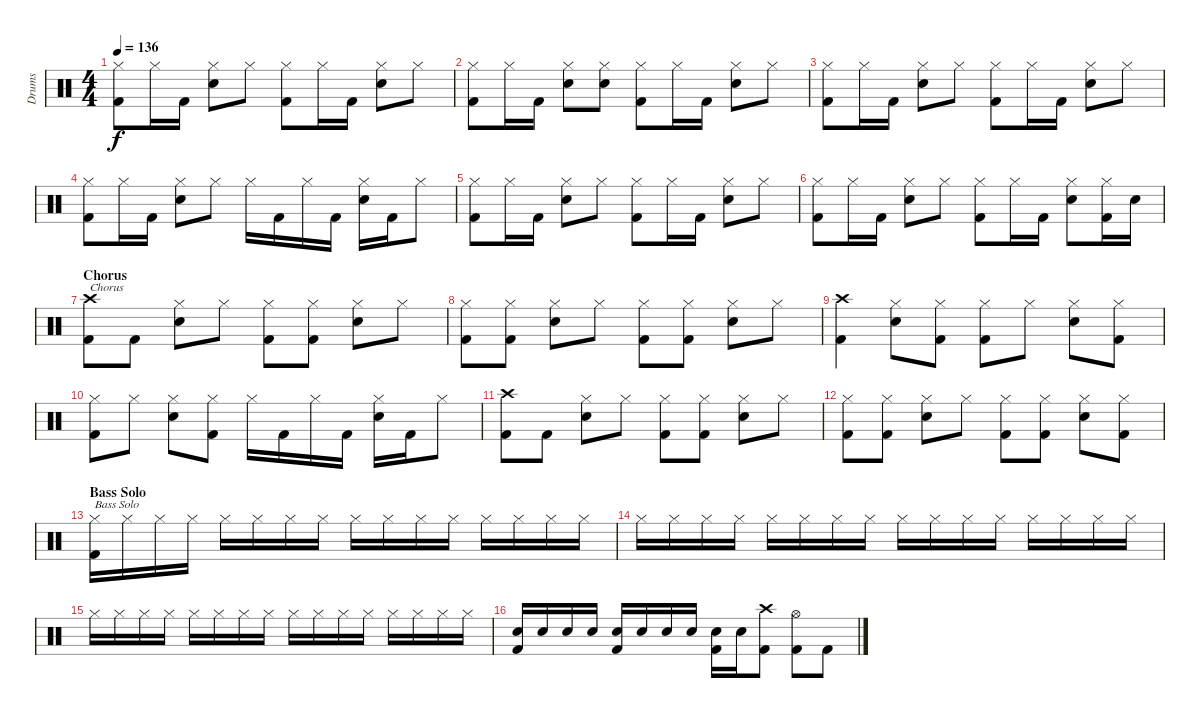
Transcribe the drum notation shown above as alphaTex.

\track ("Drums" "Drums") {instrument percussion}
\staff {score}
\articulation defaults
\ts (4 4)
\tempo 136
\clef neutral
\ks c
("Hi-Hat (closed)" "Kick (hit) 2").8{dy f} "Hi-Hat (closed)".16 "Kick (hit) 2".16 ("Hi-Hat (closed)" "Electric Snare (hit)").8 "Hi-Hat (closed)".8 ("Hi-Hat (closed)" "Kick (hit) 2").8 "Hi-Hat (closed)".16 "Kick (hit) 2".16 ("Hi-Hat (closed)" "Electric Snare (hit)").8 "Hi-Hat (closed)".8 |
("Hi-Hat (closed)" "Kick (hit) 2").8 "Hi-Hat (closed)".16 "Kick (hit) 2".16 ("Hi-Hat (closed)" "Electric Snare (hit)").8 ("Hi-Hat (closed)" "Electric Snare (hit)").8 ("Hi-Hat (closed)" "Kick (hit) 2").8 "Hi-Hat (closed)".16 "Kick (hit) 2".16 ("Hi-Hat (closed)" "Electric Snare (hit)").8 "Hi-Hat (closed)".8 |
("Hi-Hat (closed)" "Kick (hit) 2").8 "Hi-Hat (closed)".16 "Kick (hit) 2".16 ("Hi-Hat (closed)" "Electric Snare (hit)").8 "Hi-Hat (closed)".8 ("Hi-Hat (closed)" "Kick (hit) 2").8 "Hi-Hat (closed)".16 "Kick (hit) 2".16 ("Hi-Hat (closed)" "Electric Snare (hit)").8 "Hi-Hat (closed)".8 |
("Hi-Hat (closed)" "Kick (hit) 2").8 "Hi-Hat (closed)".16 "Kick (hit) 2".16 ("Hi-Hat (closed)" "Electric Snare (hit)").8 "Hi-Hat (closed)".8 "Hi-Hat (closed)".16 "Kick (hit) 2".16 "Hi-Hat (closed)".16 "Kick (hit) 2".16 ("Hi-Hat (closed)" "Electric Snare (hit)").16 "Kick (hit) 2".16 "Hi-Hat (closed)".8 |
("Hi-Hat (closed)" "Kick (hit) 2").8 "Hi-Hat (closed)".16 "Kick (hit) 2".16 ("Hi-Hat (closed)" "Electric Snare (hit)").8 "Hi-Hat (closed)".8 ("Hi-Hat (closed)" "Kick (hit) 2").8 "Hi-Hat (closed)".16 "Kick (hit) 2".16 ("Hi-Hat (closed)" "Electric Snare (hit)").8 "Hi-Hat (closed)".8 |
("Hi-Hat (closed)" "Kick (hit) 2").8 "Hi-Hat (closed)".16 "Kick (hit) 2".16 ("Hi-Hat (closed)" "Electric Snare (hit)").8 "Hi-Hat (closed)".8 ("Hi-Hat (closed)" "Kick (hit) 2").8 "Hi-Hat (closed)".16 "Kick (hit) 2".16 ("Hi-Hat (closed)" "Electric Snare (hit)").8 ("Hi-Hat (closed)" "Kick (hit) 2").16 "Electric Snare (hit)".16 |
\section ("" "Chorus ")
("Crash high (hit)" "Kick (hit) 2").8{txt "Chorus"} "Kick (hit) 2".8 ("Hi-Hat (closed)" "Electric Snare (hit)").8 "Hi-Hat (closed)".8 ("Hi-Hat (closed)" "Kick (hit) 2").8 ("Hi-Hat (closed)" "Kick (hit) 2").8 ("Hi-Hat (closed)" "Electric Snare (hit)").8 "Hi-Hat (closed)".8 |
("Hi-Hat (closed)" "Kick (hit) 2").8 ("Hi-Hat (closed)" "Kick (hit) 2").8 ("Hi-Hat (closed)" "Electric Snare (hit)").8 "Hi-Hat (closed)".8 ("Hi-Hat (closed)" "Kick (hit) 2").8 ("Hi-Hat (closed)" "Kick (hit) 2").8 ("Hi-Hat (closed)" "Electric Snare (hit)").8 "Hi-Hat (closed)".8 |
("Crash high (hit)" "Kick (hit) 2").4 ("Hi-Hat (closed)" "Electric Snare (hit)").8 ("Hi-Hat (closed)" "Kick (hit) 2").8 ("Hi-Hat (closed)" "Kick (hit) 2").8 "Hi-Hat (closed)".8 ("Hi-Hat (closed)" "Electric Snare (hit)").8 ("Hi-Hat (closed)" "Kick (hit) 2").8 |
("Hi-Hat (closed)" "Kick (hit) 2").8 "Hi-Hat (closed)".8 ("Hi-Hat (closed)" "Electric Snare (hit)").8 ("Hi-Hat (closed)" "Kick (hit) 2").8 "Hi-Hat (closed)".16 "Kick (hit) 2".16 "Hi-Hat (closed)".16 "Kick (hit) 2".16 ("Hi-Hat (closed)" "Electric Snare (hit)").16 "Kick (hit) 2".16 "Hi-Hat (closed)".8 |
("Crash high (hit)" "Kick (hit) 2").8 "Kick (hit) 2".8 ("Hi-Hat (closed)" "Electric Snare (hit)").8 "Hi-Hat (closed)".8 ("Hi-Hat (closed)" "Kick (hit) 2").8 ("Hi-Hat (closed)" "Kick (hit) 2").8 ("Hi-Hat (closed)" "Electric Snare (hit)").8 "Hi-Hat (closed)".8 |
("Hi-Hat (closed)" "Kick (hit) 2").8 ("Hi-Hat (closed)" "Kick (hit) 2").8 ("Hi-Hat (closed)" "Electric Snare (hit)").8 "Hi-Hat (closed)".8 ("Hi-Hat (closed)" "Kick (hit) 2").8 ("Hi-Hat (closed)" "Kick (hit) 2").8 ("Hi-Hat (closed)" "Electric Snare (hit)").8 ("Hi-Hat (closed)" "Kick (hit) 2").8 |
\section ("" "Bass Solo")
("Hi-Hat (closed)" "Kick (hit) 2").16{txt "Bass Solo"} "Hi-Hat (closed)".16 "Hi-Hat (closed)".16 "Hi-Hat (closed)".16 "Hi-Hat (closed)".16 "Hi-Hat (closed)".16 "Hi-Hat (closed)".16 "Hi-Hat (closed)".16 "Hi-Hat (closed)".16 "Hi-Hat (closed)".16 "Hi-Hat (closed)".16 "Hi-Hat (closed)".16 "Hi-Hat (closed)".16 "Hi-Hat (closed)".16 "Hi-Hat (closed)".16 "Hi-Hat (closed)".16 |
"Hi-Hat (closed)".16 "Hi-Hat (closed)".16 "Hi-Hat (closed)".16 "Hi-Hat (closed)".16 "Hi-Hat (closed)".16 "Hi-Hat (closed)".16 "Hi-Hat (closed)".16 "Hi-Hat (closed)".16 "Hi-Hat (closed)".16 "Hi-Hat (closed)".16 "Hi-Hat (closed)".16 "Hi-Hat (closed)".16 "Hi-Hat (closed)".16 "Hi-Hat (closed)".16 "Hi-Hat (closed)".16 "Hi-Hat (closed)".16 |
"Hi-Hat (closed)".16 "Hi-Hat (closed)".16 "Hi-Hat (closed)".16 "Hi-Hat (closed)".16 "Hi-Hat (closed)".16 "Hi-Hat (closed)".16 "Hi-Hat (closed)".16 "Hi-Hat (closed)".16 "Hi-Hat (closed)".16 "Hi-Hat (closed)".16 "Hi-Hat (closed)".16 "Hi-Hat (closed)".16 "Hi-Hat (closed)".16 "Hi-Hat (closed)".16 "Hi-Hat (closed)".16 "Hi-Hat (closed)".16 |
("Electric Snare (hit)" "Kick (hit) 2").16 "Electric Snare (hit)".16 "Electric Snare (hit)".16 "Electric Snare (hit)".16 ("Electric Snare (hit)" "Kick (hit) 2").16 "Electric Snare (hit)".16 "Electric Snare (hit)".16 "Electric Snare (hit)".16 ("Electric Snare (hit)" "Kick (hit) 2").16 "Electric Snare (hit)".16 ("Crash high (hit)" "Kick (hit) 2").8 ("Hi-Hat (open)" "Kick (hit) 2").8 "Kick (hit) 2".8
